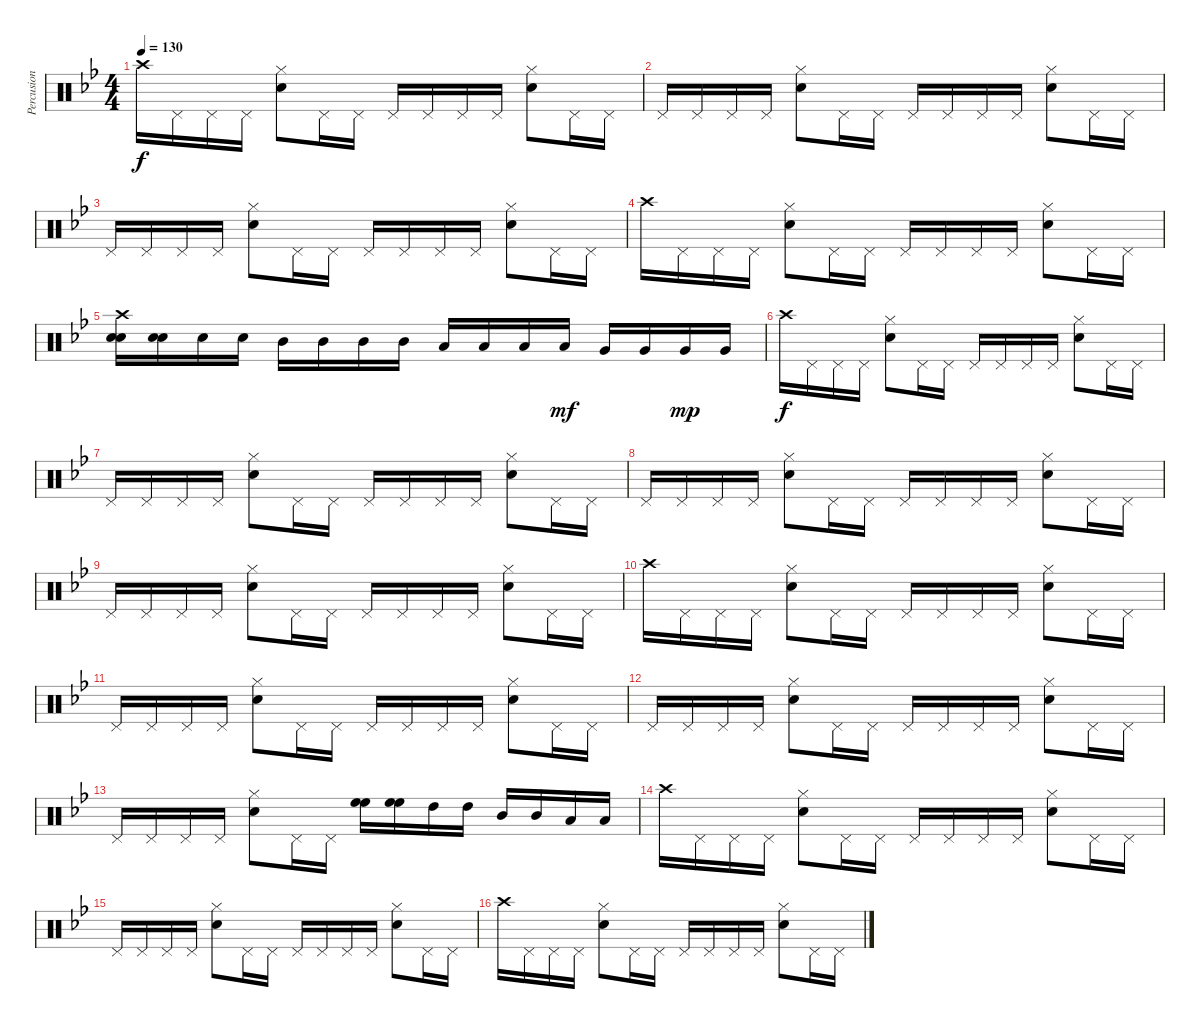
\track ("Percusion I" "Percusion ") {instrument percussion}
\staff {score}
\articulation defaults
\ts (4 4)
\tempo 130
\clef neutral
\ks gminor "Crash high (hit)".16{dy f} "Pedal Hi-Hat (hit)".16 "Pedal Hi-Hat (hit)".16 "Pedal Hi-Hat (hit)".16
("Snare (hit) 2" "Hi-Hat (closed)").8 "Pedal Hi-Hat (hit)".16 "Pedal Hi-Hat (hit)".16 "Pedal Hi-Hat (hit)".16 "Pedal Hi-Hat (hit)".16 "Pedal Hi-Hat (hit)".16 "Pedal Hi-Hat (hit)".16 ("Snare (hit) 2" "Hi-Hat (closed)").8 "Pedal Hi-Hat (hit)".16 "Pedal Hi-Hat (hit)".16 |
"Pedal Hi-Hat (hit)".16 "Pedal Hi-Hat (hit)".16 "Pedal Hi-Hat (hit)".16 "Pedal Hi-Hat (hit)".16 ("Hi-Hat (closed)" "Snare (hit) 2").8 "Pedal Hi-Hat (hit)".16 "Pedal Hi-Hat (hit)".16 "Pedal Hi-Hat (hit)".16 "Pedal Hi-Hat (hit)".16 "Pedal Hi-Hat (hit)".16 "Pedal Hi-Hat (hit)".16 ("Snare (hit) 2" "Hi-Hat (closed)").8 "Pedal Hi-Hat (hit)".16 "Pedal Hi-Hat (hit)".16 |
"Pedal Hi-Hat (hit)".16 "Pedal Hi-Hat (hit)".16 "Pedal Hi-Hat (hit)".16 "Pedal Hi-Hat (hit)".16 ("Hi-Hat (closed)" "Snare (hit) 2").8 "Pedal Hi-Hat (hit)".16 "Pedal Hi-Hat (hit)".16 "Pedal Hi-Hat (hit)".16 "Pedal Hi-Hat (hit)".16 "Pedal Hi-Hat (hit)".16 "Pedal Hi-Hat (hit)".16 ("Snare (hit) 2" "Hi-Hat (closed)").8 "Pedal Hi-Hat (hit)".16 "Pedal Hi-Hat (hit)".16 |
"Crash high (hit)".16 "Pedal Hi-Hat (hit)".16 "Pedal Hi-Hat (hit)".16 "Pedal Hi-Hat (hit)".16 ("Snare (hit) 2" "Hi-Hat (closed)").8 "Pedal Hi-Hat (hit)".16 "Pedal Hi-Hat (hit)".16 "Pedal Hi-Hat (hit)".16 "Pedal Hi-Hat (hit)".16 "Pedal Hi-Hat (hit)".16 "Pedal Hi-Hat (hit)".16 ("Snare (hit) 2" "Hi-Hat (closed)").8 "Pedal Hi-Hat (hit)".16 "Pedal Hi-Hat (hit)".16 |
("Snare (hit) 2" "Crash high (hit)" "Snare (hit) 2").16 ("Snare (hit) 2" "Snare (hit) 2").16 "Snare (hit) 2".16 "Snare (hit) 2".16 "Mid Tom (hit)".16 "Mid Tom (hit)".16 "Mid Tom (hit)".16 "Mid Tom (hit)".16 "Low Tom (hit)".16 "Low Tom (hit)".16 "Low Tom (hit)".16 "Low Tom (hit)".16{dy mf} "Very Low Tom (hit)".16 "Very Low Tom (hit)".16 "Very Low Tom (hit)".16{dy mp} "Very Low Tom (hit)".16 |
"Crash high (hit)".16{dy f} "Pedal Hi-Hat (hit)".16 "Pedal Hi-Hat (hit)".16 "Pedal Hi-Hat (hit)".16 ("Snare (hit) 2" "Hi-Hat (closed)").8 "Pedal Hi-Hat (hit)".16 "Pedal Hi-Hat (hit)".16 "Pedal Hi-Hat (hit)".16 "Pedal Hi-Hat (hit)".16 "Pedal Hi-Hat (hit)".16 "Pedal Hi-Hat (hit)".16 ("Hi-Hat (closed)" "Snare (hit) 2").8 "Pedal Hi-Hat (hit)".16 "Pedal Hi-Hat (hit)".16 |
"Pedal Hi-Hat (hit)".16 "Pedal Hi-Hat (hit)".16 "Pedal Hi-Hat (hit)".16 "Pedal Hi-Hat (hit)".16 ("Hi-Hat (closed)" "Snare (hit) 2").8 "Pedal Hi-Hat (hit)".16 "Pedal Hi-Hat (hit)".16 "Pedal Hi-Hat (hit)".16 "Pedal Hi-Hat (hit)".16 "Pedal Hi-Hat (hit)".16 "Pedal Hi-Hat (hit)".16 ("Snare (hit) 2" "Hi-Hat (closed)").8 "Pedal Hi-Hat (hit)".16 "Pedal Hi-Hat (hit)".16 |
"Pedal Hi-Hat (hit)".16 "Pedal Hi-Hat (hit)".16 "Pedal Hi-Hat (hit)".16 "Pedal Hi-Hat (hit)".16 ("Hi-Hat (closed)" "Snare (hit) 2").8 "Pedal Hi-Hat (hit)".16 "Pedal Hi-Hat (hit)".16 "Pedal Hi-Hat (hit)".16 "Pedal Hi-Hat (hit)".16 "Pedal Hi-Hat (hit)".16 "Pedal Hi-Hat (hit)".16 ("Hi-Hat (closed)" "Snare (hit) 2").8 "Pedal Hi-Hat (hit)".16 "Pedal Hi-Hat (hit)".16 |
"Pedal Hi-Hat (hit)".16 "Pedal Hi-Hat (hit)".16 "Pedal Hi-Hat (hit)".16 "Pedal Hi-Hat (hit)".16 ("Snare (hit) 2" "Hi-Hat (closed)").8 "Pedal Hi-Hat (hit)".16 "Pedal Hi-Hat (hit)".16 "Pedal Hi-Hat (hit)".16 "Pedal Hi-Hat (hit)".16 "Pedal Hi-Hat (hit)".16 "Pedal Hi-Hat (hit)".16 ("Snare (hit) 2" "Hi-Hat (closed)").8 "Pedal Hi-Hat (hit)".16 "Pedal Hi-Hat (hit)".16 |
"Crash high (hit)".16 "Pedal Hi-Hat (hit)".16 "Pedal Hi-Hat (hit)".16 "Pedal Hi-Hat (hit)".16 ("Snare (hit) 2" "Hi-Hat (closed)").8 "Pedal Hi-Hat (hit)".16 "Pedal Hi-Hat (hit)".16 "Pedal Hi-Hat (hit)".16 "Pedal Hi-Hat (hit)".16 "Pedal Hi-Hat (hit)".16 "Pedal Hi-Hat (hit)".16 ("Hi-Hat (closed)" "Snare (hit) 2").8 "Pedal Hi-Hat (hit)".16 "Pedal Hi-Hat (hit)".16 |
"Pedal Hi-Hat (hit)".16 "Pedal Hi-Hat (hit)".16 "Pedal Hi-Hat (hit)".16 "Pedal Hi-Hat (hit)".16 ("Hi-Hat (closed)" "Snare (hit) 2").8 "Pedal Hi-Hat (hit)".16 "Pedal Hi-Hat (hit)".16 "Pedal Hi-Hat (hit)".16 "Pedal Hi-Hat (hit)".16 "Pedal Hi-Hat (hit)".16 "Pedal Hi-Hat (hit)".16 ("Snare (hit) 2" "Hi-Hat (closed)").8 "Pedal Hi-Hat (hit)".16 "Pedal Hi-Hat (hit)".16 |
"Pedal Hi-Hat (hit)".16 "Pedal Hi-Hat (hit)".16 "Pedal Hi-Hat (hit)".16 "Pedal Hi-Hat (hit)".16 ("Hi-Hat (closed)" "Snare (hit) 2").8 "Pedal Hi-Hat (hit)".16 "Pedal Hi-Hat (hit)".16 "Pedal Hi-Hat (hit)".16 "Pedal Hi-Hat (hit)".16 "Pedal Hi-Hat (hit)".16 "Pedal Hi-Hat (hit)".16 ("Hi-Hat (closed)" "Snare (hit) 2").8 "Pedal Hi-Hat (hit)".16 "Pedal Hi-Hat (hit)".16 |
"Pedal Hi-Hat (hit)".16 "Pedal Hi-Hat (hit)".16 "Pedal Hi-Hat (hit)".16 "Pedal Hi-Hat (hit)".16 ("Snare (hit) 2" "Hi-Hat (closed)").8 "Pedal Hi-Hat (hit)".16 "Pedal Hi-Hat (hit)".16 ("High Floor Tom (hit)" "High Floor Tom (hit)").16 ("High Floor Tom (hit)" "High Floor Tom (hit)").16 "High Tom (hit)".16 "High Tom (hit)".16 "Mid Tom (hit)".16 "Mid Tom (hit)".16 "Low Tom (hit)".16 "Low Tom (hit)".16 |
"Crash high (hit)".16 "Pedal Hi-Hat (hit)".16 "Pedal Hi-Hat (hit)".16 "Pedal Hi-Hat (hit)".16 ("Snare (hit) 2" "Hi-Hat (closed)").8 "Pedal Hi-Hat (hit)".16 "Pedal Hi-Hat (hit)".16 "Pedal Hi-Hat (hit)".16 "Pedal Hi-Hat (hit)".16 "Pedal Hi-Hat (hit)".16 "Pedal Hi-Hat (hit)".16 ("Hi-Hat (closed)" "Snare (hit) 2").8 "Pedal Hi-Hat (hit)".16 "Pedal Hi-Hat (hit)".16 |
"Pedal Hi-Hat (hit)".16 "Pedal Hi-Hat (hit)".16 "Pedal Hi-Hat (hit)".16 "Pedal Hi-Hat (hit)".16 ("Hi-Hat (closed)" "Snare (hit) 2").8 "Pedal Hi-Hat (hit)".16 "Pedal Hi-Hat (hit)".16 "Pedal Hi-Hat (hit)".16 "Pedal Hi-Hat (hit)".16 "Pedal Hi-Hat (hit)".16 "Pedal Hi-Hat (hit)".16 ("Snare (hit) 2" "Hi-Hat (closed)").8 "Pedal Hi-Hat (hit)".16 "Pedal Hi-Hat (hit)".16 |
"Crash high (hit)".16 "Pedal Hi-Hat (hit)".16 "Pedal Hi-Hat (hit)".16 "Pedal Hi-Hat (hit)".16 ("Hi-Hat (closed)" "Snare (hit) 2").8 "Pedal Hi-Hat (hit)".16 "Pedal Hi-Hat (hit)".16 "Pedal Hi-Hat (hit)".16 "Pedal Hi-Hat (hit)".16 "Pedal Hi-Hat (hit)".16 "Pedal Hi-Hat (hit)".16 ("Hi-Hat (closed)" "Snare (hit) 2").8 "Pedal Hi-Hat (hit)".16 "Pedal Hi-Hat (hit)".16
